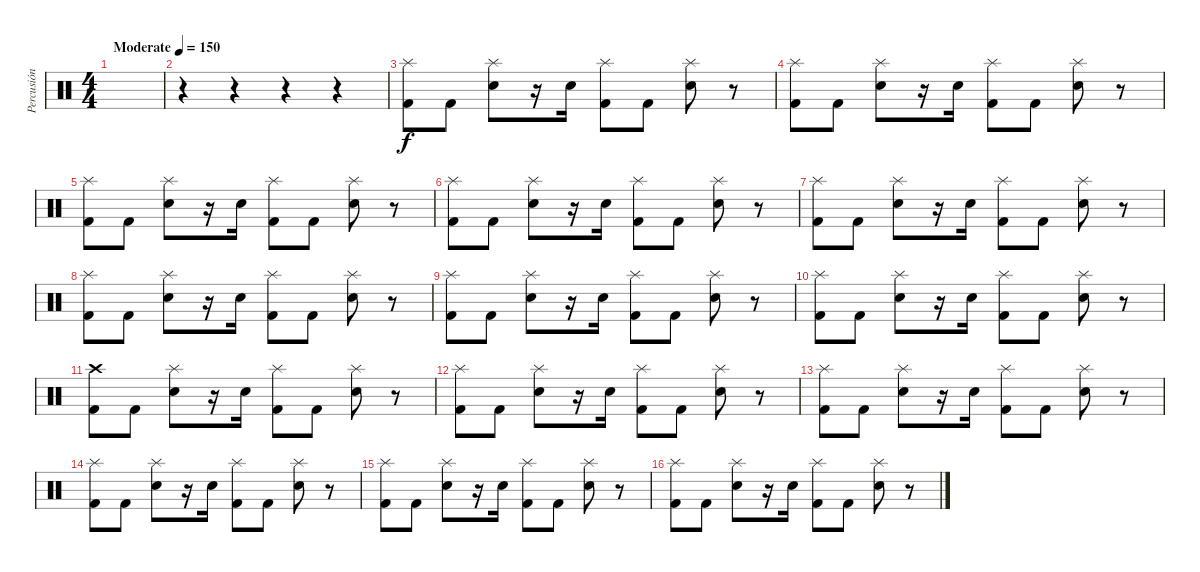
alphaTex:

\track ("Percusión" "Percusión") {instrument percussion}
\staff {score}
\articulation defaults
\ts (4 4)
\tempo (150 "Moderate")
\clef neutral
\ks c
|
r.4 r.4 r.4 r.4 |
("Splash (hit)" "Kick (hit) 2").8 "Kick (hit) 2".8 ("Splash (hit)" "Snare (hit) 2").8 r.16 "Snare (hit) 2".16 ("Splash (hit)" "Kick (hit) 2").8 "Kick (hit) 2".8 ("Splash (hit)" "Snare (hit) 2").8 r.8 |
("Splash (hit)" "Kick (hit) 2").8 "Kick (hit) 2".8 ("Splash (hit)" "Snare (hit) 2").8 r.16 "Snare (hit) 2".16 ("Splash (hit)" "Kick (hit) 2").8 "Kick (hit) 2".8 ("Splash (hit)" "Snare (hit) 2").8 r.8 |
("Splash (hit)" "Kick (hit) 2").8 "Kick (hit) 2".8 ("Splash (hit)" "Snare (hit) 2").8 r.16 "Snare (hit) 2".16 ("Splash (hit)" "Kick (hit) 2").8 "Kick (hit) 2".8 ("Splash (hit)" "Snare (hit) 2").8 r.8 |
("Splash (hit)" "Kick (hit) 2").8 "Kick (hit) 2".8 ("Splash (hit)" "Snare (hit) 2").8 r.16 "Snare (hit) 2".16 ("Splash (hit)" "Kick (hit) 2").8 "Kick (hit) 2".8 ("Splash (hit)" "Snare (hit) 2").8 r.8 |
("Splash (hit)" "Kick (hit) 2").8 "Kick (hit) 2".8 ("Splash (hit)" "Snare (hit) 2").8 r.16 "Snare (hit) 2".16 ("Splash (hit)" "Kick (hit) 2").8 "Kick (hit) 2".8 ("Splash (hit)" "Snare (hit) 2").8 r.8 |
("Splash (hit)" "Kick (hit) 2").8 "Kick (hit) 2".8 ("Splash (hit)" "Snare (hit) 2").8 r.16 "Snare (hit) 2".16 ("Splash (hit)" "Kick (hit) 2").8 "Kick (hit) 2".8 ("Splash (hit)" "Snare (hit) 2").8 r.8 |
("Splash (hit)" "Kick (hit) 2").8 "Kick (hit) 2".8 ("Splash (hit)" "Snare (hit) 2").8 r.16 "Snare (hit) 2".16 ("Splash (hit)" "Kick (hit) 2").8 "Kick (hit) 2".8 ("Splash (hit)" "Snare (hit) 2").8 r.8 |
("Splash (hit)" "Kick (hit) 2").8 "Kick (hit) 2".8 ("Splash (hit)" "Snare (hit) 2").8 r.16 "Snare (hit) 2".16 ("Splash (hit)" "Kick (hit) 2").8 "Kick (hit) 2".8 ("Splash (hit)" "Snare (hit) 2").8 r.8 |
("Crash high (hit)" "Kick (hit) 2").8 "Kick (hit) 2".8 ("Splash (hit)" "Snare (hit) 2").8 r.16 "Snare (hit) 2".16 ("Splash (hit)" "Kick (hit) 2").8 "Kick (hit) 2".8 ("Splash (hit)" "Snare (hit) 2").8 r.8 |
("Splash (hit)" "Kick (hit) 2").8 "Kick (hit) 2".8 ("Splash (hit)" "Snare (hit) 2").8 r.16 "Snare (hit) 2".16 ("Splash (hit)" "Kick (hit) 2").8 "Kick (hit) 2".8 ("Splash (hit)" "Snare (hit) 2").8 r.8 |
("Splash (hit)" "Kick (hit) 2").8 "Kick (hit) 2".8 ("Splash (hit)" "Snare (hit) 2").8 r.16 "Snare (hit) 2".16 ("Splash (hit)" "Kick (hit) 2").8 "Kick (hit) 2".8 ("Splash (hit)" "Snare (hit) 2").8 r.8 |
("Splash (hit)" "Kick (hit) 2").8 "Kick (hit) 2".8 ("Splash (hit)" "Snare (hit) 2").8 r.16 "Snare (hit) 2".16 ("Splash (hit)" "Kick (hit) 2").8 "Kick (hit) 2".8 ("Splash (hit)" "Snare (hit) 2").8 r.8 |
("Splash (hit)" "Kick (hit) 2").8 "Kick (hit) 2".8 ("Splash (hit)" "Snare (hit) 2").8 r.16 "Snare (hit) 2".16 ("Splash (hit)" "Kick (hit) 2").8 "Kick (hit) 2".8 ("Splash (hit)" "Snare (hit) 2").8 r.8 |
("Splash (hit)" "Kick (hit) 2").8 "Kick (hit) 2".8 ("Splash (hit)" "Snare (hit) 2").8 r.16 "Snare (hit) 2".16 ("Splash (hit)" "Kick (hit) 2").8 "Kick (hit) 2".8 ("Splash (hit)" "Snare (hit) 2").8 r.8
